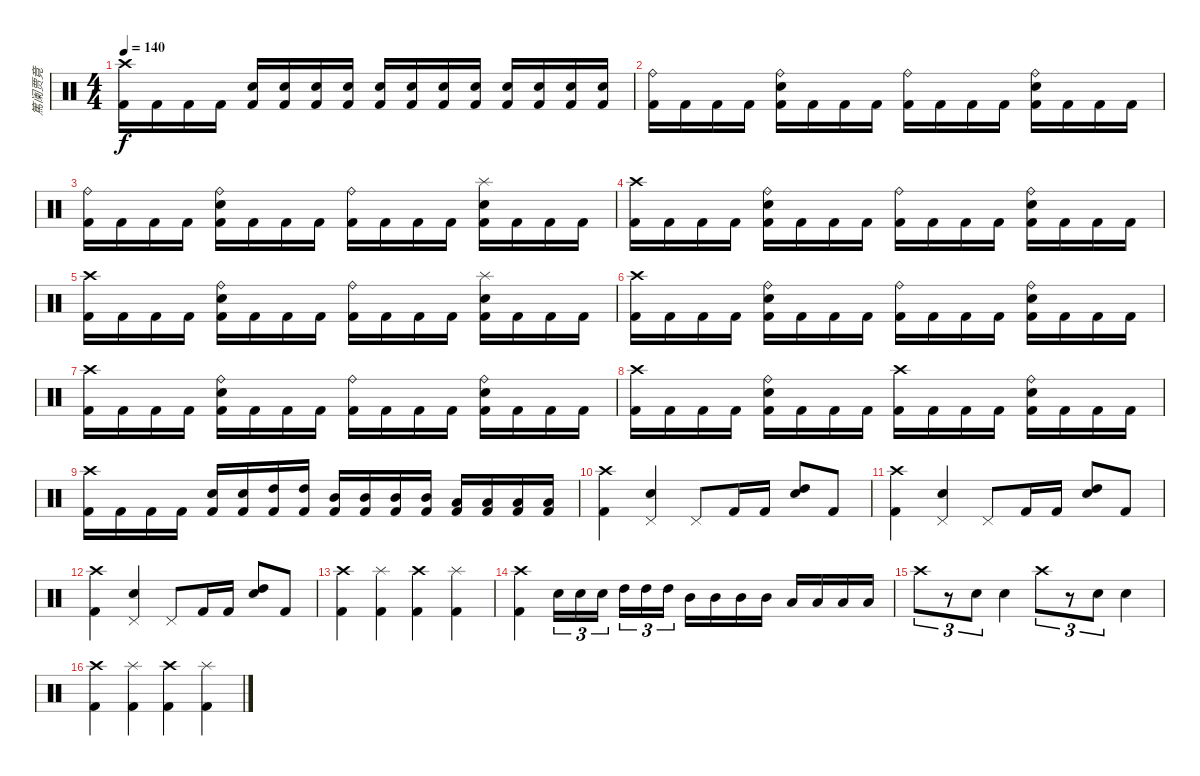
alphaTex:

\track ("篤阑贾竟" "篤阑贾竟") {instrument percussion}
\staff {score}
\articulation defaults
\ts (4 4)
\tempo 140
\clef neutral
\ks c
("Crash high (hit)" "Kick (hit) 2").16{dy f} "Kick (hit) 2".16 "Kick (hit) 2".16 "Kick (hit) 2".16 ("Snare (hit) 2" "Kick (hit) 2").16 ("Snare (hit) 2" "Kick (hit) 2").16 ("Snare (hit) 2" "Kick (hit) 2").16 ("Snare (hit) 2" "Kick (hit) 2").16 ("Snare (hit) 2" "Kick (hit) 2").16 ("Snare (hit) 2" "Kick (hit) 2").16 ("Snare (hit) 2" "Kick (hit) 2").16 ("Snare (hit) 2" "Kick (hit) 2").16 ("Snare (hit) 2" "Kick (hit) 2").16 ("Snare (hit) 2" "Kick (hit) 2").16 ("Snare (hit) 2" "Kick (hit) 2").16 ("Snare (hit) 2" "Kick (hit) 2").16 |
("Ride (bell)" "Kick (hit) 2").16 "Kick (hit) 2".16 "Kick (hit) 2".16 "Kick (hit) 2".16 ("Ride (bell)" "Snare (hit) 2" "Kick (hit) 2").16 "Kick (hit) 2".16 "Kick (hit) 2".16 "Kick (hit) 2".16 ("Ride (bell)" "Kick (hit) 2").16 "Kick (hit) 2".16 "Kick (hit) 2".16 "Kick (hit) 2".16 ("Ride (bell)" "Snare (hit) 2" "Kick (hit) 2").16 "Kick (hit) 2".16 "Kick (hit) 2".16 "Kick (hit) 2".16 |
("Ride (bell)" "Kick (hit) 2").16 "Kick (hit) 2".16 "Kick (hit) 2".16 "Kick (hit) 2".16 ("Ride (bell)" "Snare (hit) 2" "Kick (hit) 2").16 "Kick (hit) 2".16 "Kick (hit) 2".16 "Kick (hit) 2".16 ("Ride (bell)" "Kick (hit) 2").16 "Kick (hit) 2".16 "Kick (hit) 2".16 "Kick (hit) 2".16 ("Splash (hit)" "Snare (hit) 2" "Kick (hit) 2").16 "Kick (hit) 2".16 "Kick (hit) 2".16 "Kick (hit) 2".16 |
("Crash high (hit)" "Kick (hit) 2").16 "Kick (hit) 2".16 "Kick (hit) 2".16 "Kick (hit) 2".16 ("Ride (bell)" "Snare (hit) 2" "Kick (hit) 2").16 "Kick (hit) 2".16 "Kick (hit) 2".16 "Kick (hit) 2".16 ("Ride (bell)" "Kick (hit) 2").16 "Kick (hit) 2".16 "Kick (hit) 2".16 "Kick (hit) 2".16 ("Ride (bell)" "Snare (hit) 2" "Kick (hit) 2").16 "Kick (hit) 2".16 "Kick (hit) 2".16 "Kick (hit) 2".16 |
("Crash high (hit)" "Kick (hit) 2").16 "Kick (hit) 2".16 "Kick (hit) 2".16 "Kick (hit) 2".16 ("Ride (bell)" "Snare (hit) 2" "Kick (hit) 2").16 "Kick (hit) 2".16 "Kick (hit) 2".16 "Kick (hit) 2".16 ("Ride (bell)" "Kick (hit) 2").16 "Kick (hit) 2".16 "Kick (hit) 2".16 "Kick (hit) 2".16 ("Splash (hit)" "Snare (hit) 2" "Kick (hit) 2").16 "Kick (hit) 2".16 "Kick (hit) 2".16 "Kick (hit) 2".16 |
("Crash high (hit)" "Kick (hit) 2").16 "Kick (hit) 2".16 "Kick (hit) 2".16 "Kick (hit) 2".16 ("Ride (bell)" "Snare (hit) 2" "Kick (hit) 2").16 "Kick (hit) 2".16 "Kick (hit) 2".16 "Kick (hit) 2".16 ("Ride (bell)" "Kick (hit) 2").16 "Kick (hit) 2".16 "Kick (hit) 2".16 "Kick (hit) 2".16 ("Ride (bell)" "Snare (hit) 2" "Kick (hit) 2").16 "Kick (hit) 2".16 "Kick (hit) 2".16 "Kick (hit) 2".16 |
("Crash high (hit)" "Kick (hit) 2").16 "Kick (hit) 2".16 "Kick (hit) 2".16 "Kick (hit) 2".16 ("Ride (bell)" "Snare (hit) 2" "Kick (hit) 2").16 "Kick (hit) 2".16 "Kick (hit) 2".16 "Kick (hit) 2".16 ("Ride (bell)" "Kick (hit) 2").16 "Kick (hit) 2".16 "Kick (hit) 2".16 "Kick (hit) 2".16 ("Ride (bell)" "Snare (hit) 2" "Kick (hit) 2").16 "Kick (hit) 2".16 "Kick (hit) 2".16 "Kick (hit) 2".16 |
("Crash high (hit)" "Kick (hit) 2").16 "Kick (hit) 2".16 "Kick (hit) 2".16 "Kick (hit) 2".16 ("Ride (bell)" "Snare (hit) 2" "Kick (hit) 2").16 "Kick (hit) 2".16 "Kick (hit) 2".16 "Kick (hit) 2".16 ("Crash high (hit)" "Kick (hit) 2").16 "Kick (hit) 2".16 "Kick (hit) 2".16 "Kick (hit) 2".16 ("Ride (bell)" "Snare (hit) 2" "Kick (hit) 2").16 "Kick (hit) 2".16 "Kick (hit) 2".16 "Kick (hit) 2".16 |
("Crash high (hit)" "Kick (hit) 2").16 "Kick (hit) 2".16 "Kick (hit) 2".16 "Kick (hit) 2".16 ("Snare (hit) 2" "Kick (hit) 2").16 ("Snare (hit) 2" "Kick (hit) 2").16 ("High Tom (hit)" "Kick (hit) 2").16 ("High Tom (hit)" "Kick (hit) 2").16 ("Mid Tom (hit)" "Kick (hit) 2").16 ("Mid Tom (hit)" "Kick (hit) 2").16 ("Mid Tom (hit)" "Kick (hit) 2").16 ("Mid Tom (hit)" "Kick (hit) 2").16 ("Low Floor Tom (hit)" "Kick (hit) 2").16 ("Low Floor Tom (hit)" "Kick (hit) 2").16 ("Low Floor Tom (hit)" "Kick (hit) 2").16 ("Low Floor Tom (hit)" "Kick (hit) 2").16 |
("Crash high (hit)" "Kick (hit) 2").4 ("Pedal Hi-Hat (hit)" "Snare (hit) 2").4 "Pedal Hi-Hat (hit)".8 "Kick (hit) 2".16 "Kick (hit) 2".16 ("High Tom (hit)" "Snare (hit) 2").8 "Kick (hit) 2".8 |
("Crash high (hit)" "Kick (hit) 2").4 ("Pedal Hi-Hat (hit)" "Snare (hit) 2").4 "Pedal Hi-Hat (hit)".8 "Kick (hit) 2".16 "Kick (hit) 2".16 ("High Tom (hit)" "Snare (hit) 2").8 "Kick (hit) 2".8 |
("Crash high (hit)" "Kick (hit) 2").4 ("Pedal Hi-Hat (hit)" "Snare (hit) 2").4 "Pedal Hi-Hat (hit)".8 "Kick (hit) 2".16 "Kick (hit) 2".16 ("High Tom (hit)" "Snare (hit) 2").8 "Kick (hit) 2".8 |
("Crash high (hit)" "Kick (hit) 2").4 ("Splash (hit)" "Kick (hit) 2").4 ("Crash high (hit)" "Kick (hit) 2").4 ("Splash (hit)" "Kick (hit) 2").4 |
("Crash high (hit)" "Kick (hit) 2").4 "Snare (hit) 2".16{tu (3 2)} "Snare (hit) 2".16{tu (3 2)} "Snare (hit) 2".16{tu (3 2)} "High Tom (hit)".16{tu (3 2)} "High Tom (hit)".16{tu (3 2)} "High Tom (hit)".16{tu (3 2)} "Mid Tom (hit)".16 "Mid Tom (hit)".16 "Mid Tom (hit)".16 "Mid Tom (hit)".16 "Low Floor Tom (hit)".16 "Low Floor Tom (hit)".16 "Low Floor Tom (hit)".16 "Low Floor Tom (hit)".16 |
"Crash high (hit)".8{tu (3 2)} r.8{tu (3 2)} "Snare (hit) 2".8{tu (3 2)} "Snare (hit) 2".4 "Crash high (hit)".8{tu (3 2)} r.8{tu (3 2)} "Snare (hit) 2".8{tu (3 2)} "Snare (hit) 2".4 |
("Crash high (hit)" "Kick (hit) 2").4 ("Splash (hit)" "Kick (hit) 2").4 ("Crash high (hit)" "Kick (hit) 2").4 ("Splash (hit)" "Kick (hit) 2").4
